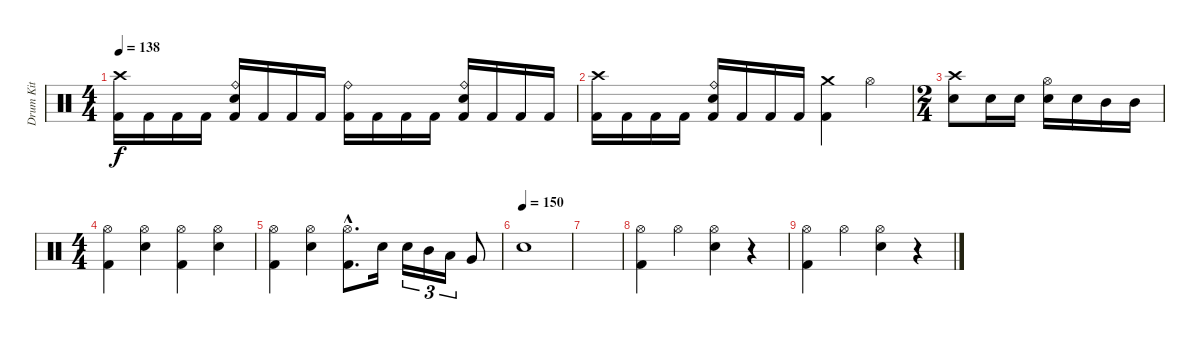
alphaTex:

\track ("Drum Kit" "Drum Kit") {instrument percussion}
\staff {score}
\articulation defaults
\ts (4 4)
\tempo 138
\clef neutral
\ks c
("Crash high (hit)" "Kick (hit) 2").16{dy f} "Kick (hit) 2".16 "Kick (hit) 2".16 "Kick (hit) 2".16 ("Ride (bell)" "Snare (hit) 2" "Kick (hit) 2").16 "Kick (hit) 2".16 "Kick (hit) 2".16 "Kick (hit) 2".16 ("Ride (bell)" "Kick (hit) 2").16 "Kick (hit) 2".16 "Kick (hit) 2".16 "Kick (hit) 2".16 ("Ride (bell)" "Snare (hit) 2" "Kick (hit) 2").16 "Kick (hit) 2".16 "Kick (hit) 2".16 "Kick (hit) 2".16 |
("Crash high (hit)" "Kick (hit) 2").16 "Kick (hit) 2".16 "Kick (hit) 2".16 "Kick (hit) 2".16 ("Ride (bell)" "Snare (hit) 2" "Kick (hit) 2").16 "Kick (hit) 2".16 "Kick (hit) 2".16 "Kick (hit) 2".16 ("Crash medium (hit)" "Kick (hit) 2").4 "Hi-Hat (open)".4 |
\ts (2 4)
("Crash high (hit)" "Snare (hit) 2").8 "Snare (hit) 2".16 "Snare (hit) 2".16 ("Hi-Hat (open)" "Snare (hit) 2").16 "Snare (hit) 2".16 "Mid Tom (hit)".16 "Mid Tom (hit)".16 |
\ts (4 4)
("Hi-Hat (open)" "Kick (hit) 2").4 ("Hi-Hat (open)" "Snare (hit) 2").4 ("Hi-Hat (open)" "Kick (hit) 2").4 ("Hi-Hat (open)" "Snare (hit) 2").4 |
("Hi-Hat (open)" "Kick (hit) 2").4 ("Hi-Hat (open)" "Snare (hit) 2").4 ("Hi-Hat (open)"{hac} "Kick (hit) 2"{hac}).8{d} "Electric Snare (hit)".16 "Electric Snare (hit)".16{tu (3 2)} "Mid Tom (hit)".16{tu (3 2)} "Low Tom (hit)".16{tu (3 2)} "Very Low Tom (hit)".8 |
\tempo (150)
"Electric Snare (hit)".1 |
|
("Hi-Hat (open)" "Kick (hit) 2").4 "Hi-Hat (open)".4 ("Hi-Hat (open)" "Electric Snare (hit)").4 r.4 |
("Hi-Hat (open)" "Kick (hit) 2").4 "Hi-Hat (open)".4 ("Hi-Hat (open)" "Electric Snare (hit)").4 r.4
